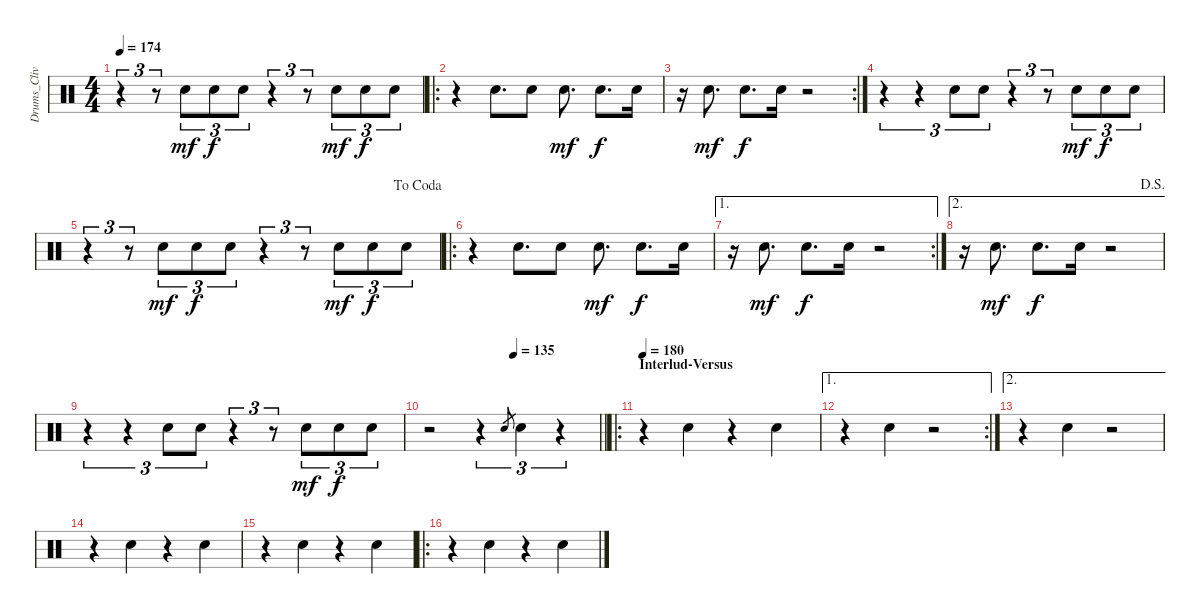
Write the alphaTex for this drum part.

\track ("Drums_CliveBurr" "Drums_Cliv") {instrument percussion}
\staff {score}
\articulation defaults
\ts (4 4)
\tempo 174
\clef neutral
\ks c
r.4{tu (3 2) dy f} r.8{tu (3 2)} "Snare (hit) 2".8{tu (3 2) dy mf} "Snare (hit) 2".8{tu (3 2) dy f} "Snare (hit) 2".8{tu (3 2)} r.4{tu (3 2)} r.8{tu (3 2)} "Snare (hit) 2".8{tu (3 2) dy mf} "Snare (hit) 2".8{tu (3 2) dy f} "Snare (hit) 2".8{tu (3 2)} |
\ro
r.4 "Snare (hit) 2".8{d} "Snare (hit) 2".8 "Snare (hit) 2".8{d dy mf} "Snare (hit) 2".8{d dy f} "Snare (hit) 2".16 |
\rc 2
r.16 "Snare (hit) 2".8{d dy mf} "Snare (hit) 2".8{d dy f} "Snare (hit) 2".16 r.2 |
r.4{tu (3 2)} r.4{tu (3 2)} "Snare (hit) 2".8{tu (3 2)} "Snare (hit) 2".8{tu (3 2)} r.4{tu (3 2)} r.8{tu (3 2)} "Snare (hit) 2".8{tu (3 2) dy mf} "Snare (hit) 2".8{tu (3 2) dy f} "Snare (hit) 2".8{tu (3 2)} |
\jump dacoda
r.4{tu (3 2)} r.8{tu (3 2)} "Snare (hit) 2".8{tu (3 2) dy mf} "Snare (hit) 2".8{tu (3 2) dy f} "Snare (hit) 2".8{tu (3 2)} r.4{tu (3 2)} r.8{tu (3 2)} "Snare (hit) 2".8{tu (3 2) dy mf} "Snare (hit) 2".8{tu (3 2) dy f} "Snare (hit) 2".8{tu (3 2)} |
\ro
r.4 "Snare (hit) 2".8{d} "Snare (hit) 2".8 "Snare (hit) 2".8{d dy mf} "Snare (hit) 2".8{d dy f} "Snare (hit) 2".16 |
\ae 1
\rc 2
r.16 "Snare (hit) 2".8{d dy mf} "Snare (hit) 2".8{d dy f} "Snare (hit) 2".16 r.2 |
\ae 2
\jump dalsegno
r.16 "Snare (hit) 2".8{d dy mf} "Snare (hit) 2".8{d dy f} "Snare (hit) 2".16 r.2 |
r.4{tu (3 2)} r.4{tu (3 2)} "Snare (hit) 2".8{tu (3 2)} "Snare (hit) 2".8{tu (3 2)} r.4{tu (3 2)} r.8{tu (3 2)} "Snare (hit) 2".8{tu (3 2) dy mf} "Snare (hit) 2".8{tu (3 2) dy f} "Snare (hit) 2".8{tu (3 2)} |
\tempo (135 0.5)
\barLineRight lightlight
r.2 r.4{tu (3 2)} "Snare (hit) 2".8{gr} "Snare (hit) 2".4{tu (3 2)} r.4{tu (3 2)} |
\ro
\section ("" "Interlud-Versus")
\tempo 180
r.4 "Snare (hit) 2".4 r.4 "Snare (hit) 2".4 |
\ae 1
\rc 2
r.4 "Snare (hit) 2".4 r.2 |
\ae 2
r.4 "Snare (hit) 2".4 r.2 |
r.4 "Snare (hit) 2".4 r.4 "Snare (hit) 2".4 |
r.4 "Snare (hit) 2".4 r.4 "Snare (hit) 2".4 |
\ro
r.4 "Snare (hit) 2".4 r.4 "Snare (hit) 2".4
